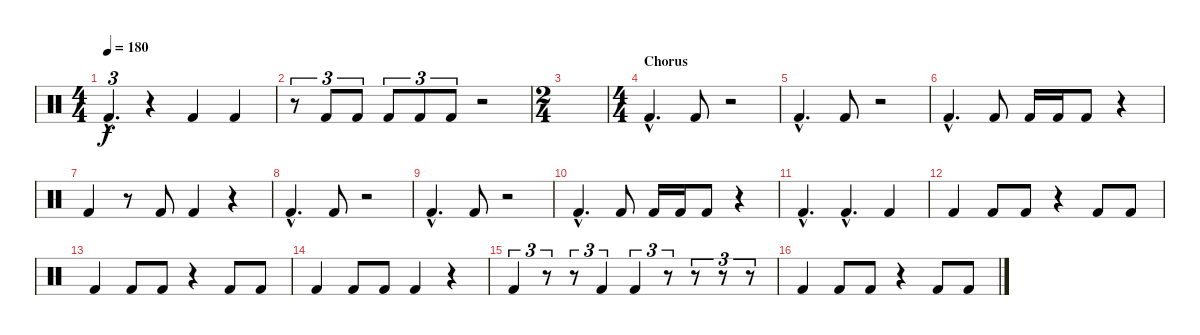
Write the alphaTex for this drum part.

\track "" {instrument percussion}
\staff {score}
\articulation defaults
\ts (4 4)
\tempo 180
\clef neutral
\ks c "Kick (hit) 2"{hac}.4{d tu (3 2) dy f}
r.4 "Kick (hit) 2".4 "Kick (hit) 2".4 |
r.8{tu (3 2)} "Kick (hit) 2".8{tu (3 2)} "Kick (hit) 2".8{tu (3 2)} "Kick (hit) 2".8{tu (3 2)} "Kick (hit) 2".8{tu (3 2)} "Kick (hit) 2".8{tu (3 2)} r.2 |
\ts (2 4)
|
\ts (4 4)
\section ("" "Chorus")
"Kick (hit) 2"{hac}.4{d} "Kick (hit) 2".8 r.2 |
"Kick (hit) 2"{hac}.4{d} "Kick (hit) 2".8 r.2 |
"Kick (hit) 2"{hac}.4{d} "Kick (hit) 2".8 "Kick (hit) 2".16 "Kick (hit) 2".16 "Kick (hit) 2".8 r.4 |
"Kick (hit) 2".4 r.8 "Kick (hit) 2".8 "Kick (hit) 2".4 r.4 |
"Kick (hit) 2"{hac}.4{d} "Kick (hit) 2".8 r.2 |
"Kick (hit) 2"{hac}.4{d} "Kick (hit) 2".8 r.2 |
"Kick (hit) 2"{hac}.4{d} "Kick (hit) 2".8 "Kick (hit) 2".16 "Kick (hit) 2".16 "Kick (hit) 2".8 r.4 |
"Kick (hit) 2"{hac}.4{d} "Kick (hit) 2"{hac}.4{d} "Kick (hit) 2".4 |
"Kick (hit) 2".4 "Kick (hit) 2".8 "Kick (hit) 2".8 r.4 "Kick (hit) 2".8 "Kick (hit) 2".8 |
"Kick (hit) 2".4 "Kick (hit) 2".8 "Kick (hit) 2".8 r.4 "Kick (hit) 2".8 "Kick (hit) 2".8 |
"Kick (hit) 2".4 "Kick (hit) 2".8 "Kick (hit) 2".8 "Kick (hit) 2".4 r.4 |
"Kick (hit) 2".4{tu (3 2)} r.8{tu (3 2)} r.8{tu (3 2)} "Kick (hit) 2".4{tu (3 2)} "Kick (hit) 2".4{tu (3 2)} r.8{tu (3 2)} r.8{tu (3 2)} r.8{tu (3 2)} r.8{tu (3 2)} |
"Kick (hit) 2".4 "Kick (hit) 2".8 "Kick (hit) 2".8 r.4 "Kick (hit) 2".8 "Kick (hit) 2".8
